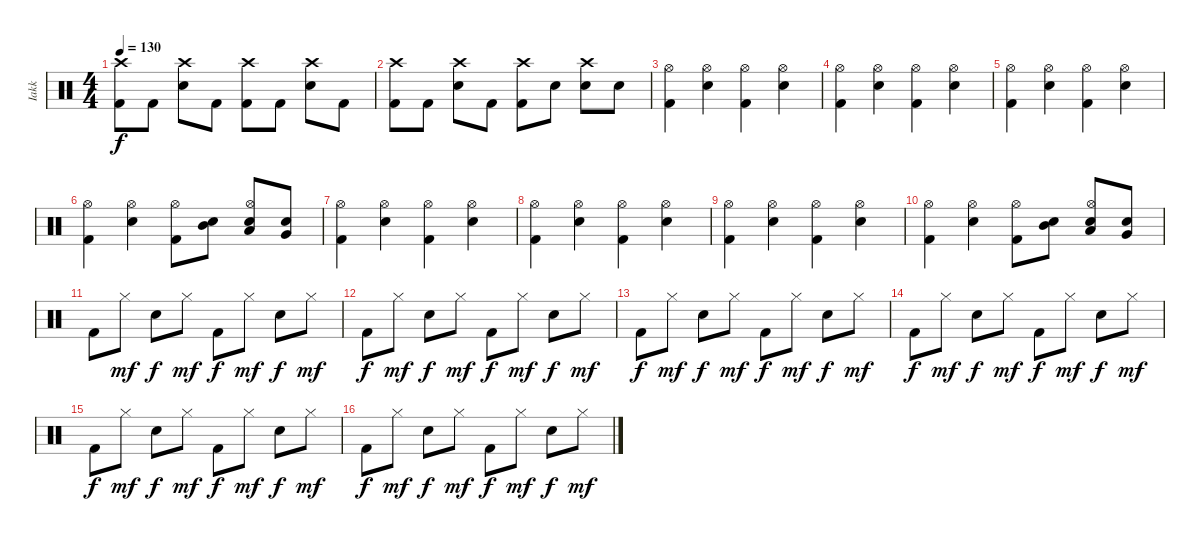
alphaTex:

\track ("Iakk" "Iakk") {instrument percussion}
\staff {score}
\articulation defaults
\ts (4 4)
\tempo 130
\clef neutral
\ks c
("Crash high (hit)" "Kick (hit) 2").8{dy f} "Kick (hit) 2".8 ("Crash high (hit)" "Electric Snare (hit)").8 "Kick (hit) 2".8 ("Crash high (hit)" "Kick (hit) 2").8 "Kick (hit) 2".8 ("Crash high (hit)" "Electric Snare (hit)").8 "Kick (hit) 2".8 |
("Crash high (hit)" "Kick (hit) 2").8 "Kick (hit) 2".8 ("Crash high (hit)" "Electric Snare (hit)").8 "Kick (hit) 2".8 ("Crash high (hit)" "Kick (hit) 2").8 "Electric Snare (hit)".8 ("Crash high (hit)" "Electric Snare (hit)").8 "Electric Snare (hit)".8 |
("Hi-Hat (open)" "Kick (hit) 2").4 ("Hi-Hat (open)" "Electric Snare (hit)").4 ("Hi-Hat (open)" "Kick (hit) 2").4 ("Hi-Hat (open)" "Electric Snare (hit)").4 |
("Hi-Hat (open)" "Kick (hit) 2").4 ("Hi-Hat (open)" "Electric Snare (hit)").4 ("Hi-Hat (open)" "Kick (hit) 2").4 ("Hi-Hat (open)" "Electric Snare (hit)").4 |
("Hi-Hat (open)" "Kick (hit) 2").4 ("Hi-Hat (open)" "Electric Snare (hit)").4 ("Hi-Hat (open)" "Kick (hit) 2").4 ("Hi-Hat (open)" "Electric Snare (hit)").4 |
("Hi-Hat (open)" "Kick (hit) 2").4 ("Hi-Hat (open)" "Electric Snare (hit)").4 ("Hi-Hat (open)" "Kick (hit) 2").8 ("Electric Snare (hit)" "Mid Tom (hit)").8 ("Hi-Hat (open)" "Electric Snare (hit)" "Low Tom (hit)").8 ("Electric Snare (hit)" "Very Low Tom (hit)").8 |
("Hi-Hat (open)" "Kick (hit) 2").4 ("Hi-Hat (open)" "Electric Snare (hit)").4 ("Hi-Hat (open)" "Kick (hit) 2").4 ("Hi-Hat (open)" "Electric Snare (hit)").4 |
("Hi-Hat (open)" "Kick (hit) 2").4 ("Hi-Hat (open)" "Electric Snare (hit)").4 ("Hi-Hat (open)" "Kick (hit) 2").4 ("Hi-Hat (open)" "Electric Snare (hit)").4 |
("Hi-Hat (open)" "Kick (hit) 2").4 ("Hi-Hat (open)" "Electric Snare (hit)").4 ("Hi-Hat (open)" "Kick (hit) 2").4 ("Hi-Hat (open)" "Electric Snare (hit)").4 |
("Hi-Hat (open)" "Kick (hit) 2").4 ("Hi-Hat (open)" "Electric Snare (hit)").4 ("Hi-Hat (open)" "Kick (hit) 2").8 ("Electric Snare (hit)" "Mid Tom (hit)").8 ("Hi-Hat (open)" "Electric Snare (hit)" "Low Tom (hit)").8 ("Electric Snare (hit)" "Very Low Tom (hit)").8 |
"Kick (hit) 2".8 "Hi-Hat (closed)".8{dy mf} "Electric Snare (hit)".8{dy f} "Hi-Hat (closed)".8{dy mf} "Kick (hit) 2".8{dy f} "Hi-Hat (closed)".8{dy mf} "Electric Snare (hit)".8{dy f} "Hi-Hat (closed)".8{dy mf} |
"Kick (hit) 2".8{dy f} "Hi-Hat (closed)".8{dy mf} "Electric Snare (hit)".8{dy f} "Hi-Hat (closed)".8{dy mf} "Kick (hit) 2".8{dy f} "Hi-Hat (closed)".8{dy mf} "Electric Snare (hit)".8{dy f} "Hi-Hat (closed)".8{dy mf} |
"Kick (hit) 2".8{dy f} "Hi-Hat (closed)".8{dy mf} "Electric Snare (hit)".8{dy f} "Hi-Hat (closed)".8{dy mf} "Kick (hit) 2".8{dy f} "Hi-Hat (closed)".8{dy mf} "Electric Snare (hit)".8{dy f} "Hi-Hat (closed)".8{dy mf} |
"Kick (hit) 2".8{dy f} "Hi-Hat (closed)".8{dy mf} "Electric Snare (hit)".8{dy f} "Hi-Hat (closed)".8{dy mf} "Kick (hit) 2".8{dy f} "Hi-Hat (closed)".8{dy mf} "Electric Snare (hit)".8{dy f} "Hi-Hat (closed)".8{dy mf} |
"Kick (hit) 2".8{dy f} "Hi-Hat (closed)".8{dy mf} "Electric Snare (hit)".8{dy f} "Hi-Hat (closed)".8{dy mf} "Kick (hit) 2".8{dy f} "Hi-Hat (closed)".8{dy mf} "Electric Snare (hit)".8{dy f} "Hi-Hat (closed)".8{dy mf} |
"Kick (hit) 2".8{dy f} "Hi-Hat (closed)".8{dy mf} "Electric Snare (hit)".8{dy f} "Hi-Hat (closed)".8{dy mf} "Kick (hit) 2".8{dy f} "Hi-Hat (closed)".8{dy mf} "Electric Snare (hit)".8{dy f} "Hi-Hat (closed)".8{dy mf}
